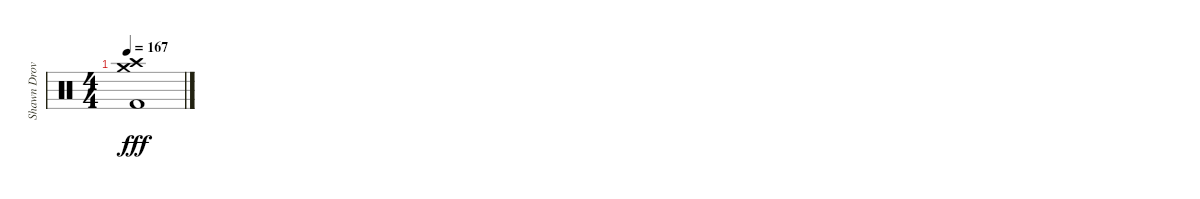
\track ("Shawn Drover" "Shawn Drov") {instrument percussion}
\staff {score}
\articulation defaults
\ts (4 4)
\tempo 167
\clef neutral
\ks c
("Kick (hit) 2" "Crash medium (hit)" "Crash high (hit)").1{dy fff}
